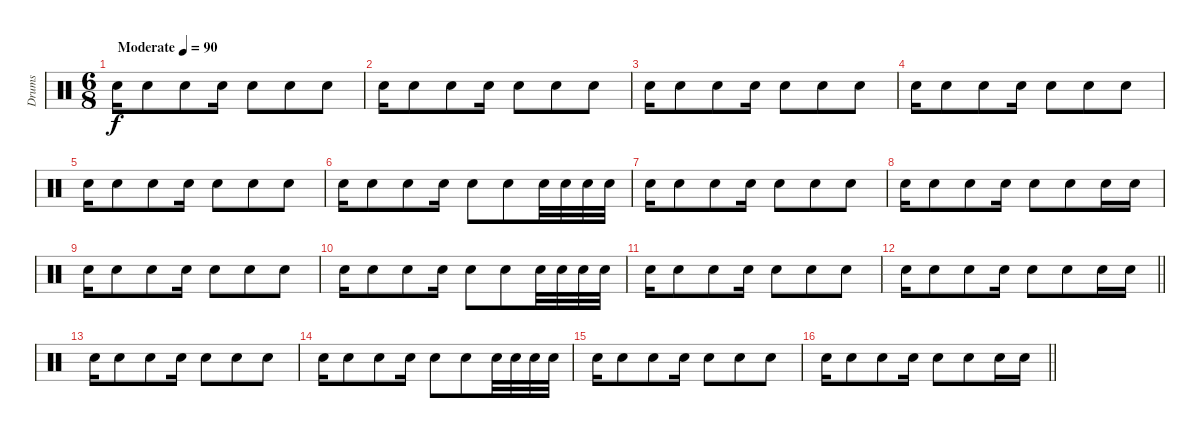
\track ("Drums" "Drums") {instrument percussion}
\staff {score}
\articulation defaults
\ts (6 8)
\section ("" "")
\tempo (90 "Moderate")
\clef neutral
\ks c "Electric Snare (hit)".16{dy f} "Electric Snare (hit)".8 "Electric Snare (hit)".8 "Electric Snare (hit)".16 "Electric Snare (hit)".8 "Electric Snare (hit)".8 "Electric Snare (hit)".8
|
"Electric Snare (hit)".16 "Electric Snare (hit)".8 "Electric Snare (hit)".8 "Electric Snare (hit)".16 "Electric Snare (hit)".8 "Electric Snare (hit)".8 "Electric Snare (hit)".8 |
"Electric Snare (hit)".16 "Electric Snare (hit)".8 "Electric Snare (hit)".8 "Electric Snare (hit)".16 "Electric Snare (hit)".8 "Electric Snare (hit)".8 "Electric Snare (hit)".8 |
"Electric Snare (hit)".16 "Electric Snare (hit)".8 "Electric Snare (hit)".8 "Electric Snare (hit)".16 "Electric Snare (hit)".8 "Electric Snare (hit)".8 "Electric Snare (hit)".8 |
"Electric Snare (hit)".16 "Electric Snare (hit)".8 "Electric Snare (hit)".8 "Electric Snare (hit)".16 "Electric Snare (hit)".8 "Electric Snare (hit)".8 "Electric Snare (hit)".8 |
"Electric Snare (hit)".16 "Electric Snare (hit)".8 "Electric Snare (hit)".8 "Electric Snare (hit)".16 "Electric Snare (hit)".8 "Electric Snare (hit)".8 "Electric Snare (hit)".32 "Electric Snare (hit)".32 "Electric Snare (hit)".32 "Electric Snare (hit)".32 |
"Electric Snare (hit)".16 "Electric Snare (hit)".8 "Electric Snare (hit)".8 "Electric Snare (hit)".16 "Electric Snare (hit)".8 "Electric Snare (hit)".8 "Electric Snare (hit)".8 |
"Electric Snare (hit)".16 "Electric Snare (hit)".8 "Electric Snare (hit)".8 "Electric Snare (hit)".16 "Electric Snare (hit)".8 "Electric Snare (hit)".8 "Electric Snare (hit)".16 "Electric Snare (hit)".16 |
"Electric Snare (hit)".16 "Electric Snare (hit)".8 "Electric Snare (hit)".8 "Electric Snare (hit)".16 "Electric Snare (hit)".8 "Electric Snare (hit)".8 "Electric Snare (hit)".8 |
"Electric Snare (hit)".16 "Electric Snare (hit)".8 "Electric Snare (hit)".8 "Electric Snare (hit)".16 "Electric Snare (hit)".8 "Electric Snare (hit)".8 "Electric Snare (hit)".32 "Electric Snare (hit)".32 "Electric Snare (hit)".32 "Electric Snare (hit)".32 |
"Electric Snare (hit)".16 "Electric Snare (hit)".8 "Electric Snare (hit)".8 "Electric Snare (hit)".16 "Electric Snare (hit)".8 "Electric Snare (hit)".8 "Electric Snare (hit)".8 |
\barLineRight lightlight "Electric Snare (hit)".16 "Electric Snare (hit)".8 "Electric Snare (hit)".8 "Electric Snare (hit)".16 "Electric Snare (hit)".8 "Electric Snare (hit)".8 "Electric Snare (hit)".16 "Electric Snare (hit)".16
|
\section ("" "")
"Electric Snare (hit)".16 "Electric Snare (hit)".8 "Electric Snare (hit)".8 "Electric Snare (hit)".16 "Electric Snare (hit)".8 "Electric Snare (hit)".8 "Electric Snare (hit)".8 |
"Electric Snare (hit)".16 "Electric Snare (hit)".8 "Electric Snare (hit)".8 "Electric Snare (hit)".16 "Electric Snare (hit)".8 "Electric Snare (hit)".8 "Electric Snare (hit)".32 "Electric Snare (hit)".32 "Electric Snare (hit)".32 "Electric Snare (hit)".32 |
"Electric Snare (hit)".16 "Electric Snare (hit)".8 "Electric Snare (hit)".8 "Electric Snare (hit)".16 "Electric Snare (hit)".8 "Electric Snare (hit)".8 "Electric Snare (hit)".8 |
\barLineRight lightlight "Electric Snare (hit)".16 "Electric Snare (hit)".8 "Electric Snare (hit)".8 "Electric Snare (hit)".16 "Electric Snare (hit)".8 "Electric Snare (hit)".8 "Electric Snare (hit)".16 "Electric Snare (hit)".16
